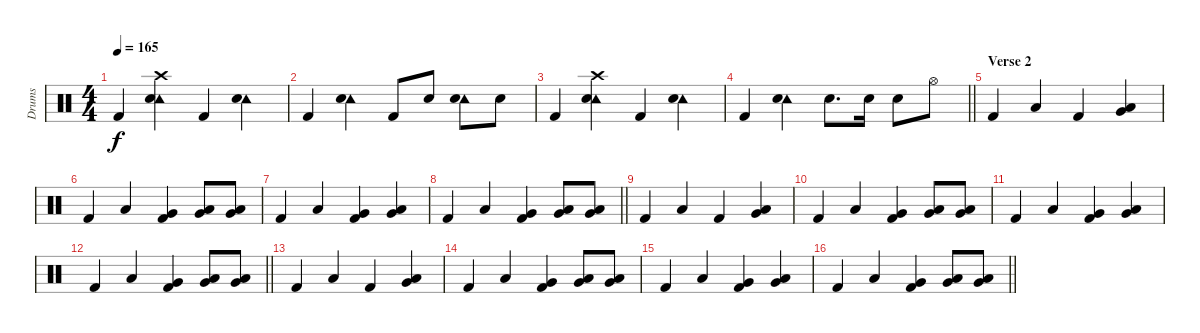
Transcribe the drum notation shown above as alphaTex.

\track ("Drums" "Drums") {instrument percussion}
\staff {score}
\articulation defaults
\ts (4 4)
\tempo 165
\clef neutral
\ks c "Kick (hit) 2".4{dy f}
("Crash high (hit)" "Tambourine (hit)" "Snare (hit) 2").4 "Kick (hit) 2".4 ("Tambourine (hit)" "Snare (hit) 2").4 |
"Kick (hit) 2".4 ("Tambourine (hit)" "Snare (hit) 2").4 "Kick (hit) 2".8 "Snare (hit) 2".8 ("Tambourine (hit)" "Snare (hit) 2").8 "Snare (hit) 2".8 |
"Kick (hit) 2".4 ("Crash high (hit)" "Tambourine (hit)" "Snare (hit) 2").4 "Kick (hit) 2".4 ("Tambourine (hit)" "Snare (hit) 2").4 |
\barLineRight lightlight "Kick (hit) 2".4
("Tambourine (hit)" "Snare (hit) 2").4 "Snare (hit) 2".8{d} "Snare (hit) 2".16 "Snare (hit) 2".8 "Hi-Hat (open)".8 |
\section ("" "Verse 2")
"Kick (hit) 2".4 "Low Tom (hit)".4 "Kick (hit) 2".4 ("Low Tom (hit)" "Very Low Tom (hit)").4 |
"Kick (hit) 2".4 "Low Tom (hit)".4 ("Very Low Tom (hit)" "Kick (hit) 2").4 ("Low Tom (hit)" "Very Low Tom (hit)").8 ("Low Tom (hit)" "Very Low Tom (hit)").8 |
"Kick (hit) 2".4 "Low Tom (hit)".4 ("Very Low Tom (hit)" "Kick (hit) 2").4 ("Low Tom (hit)" "Very Low Tom (hit)").4 |
\barLineRight lightlight "Kick (hit) 2".4 "Low Tom (hit)".4
("Very Low Tom (hit)" "Kick (hit) 2").4 ("Low Tom (hit)" "Very Low Tom (hit)").8 ("Low Tom (hit)" "Very Low Tom (hit)").8 |
"Kick (hit) 2".4 "Low Tom (hit)".4 "Kick (hit) 2".4 ("Low Tom (hit)" "Very Low Tom (hit)").4 |
"Kick (hit) 2".4 "Low Tom (hit)".4 ("Very Low Tom (hit)" "Kick (hit) 2").4 ("Low Tom (hit)" "Very Low Tom (hit)").8 ("Low Tom (hit)" "Very Low Tom (hit)").8 |
"Kick (hit) 2".4 "Low Tom (hit)".4 ("Very Low Tom (hit)" "Kick (hit) 2").4 ("Low Tom (hit)" "Very Low Tom (hit)").4 |
\barLineRight lightlight "Kick (hit) 2".4 "Low Tom (hit)".4
("Very Low Tom (hit)" "Kick (hit) 2").4 ("Low Tom (hit)" "Very Low Tom (hit)").8 ("Low Tom (hit)" "Very Low Tom (hit)").8 |
"Kick (hit) 2".4 "Low Tom (hit)".4 "Kick (hit) 2".4 ("Low Tom (hit)" "Very Low Tom (hit)").4 |
"Kick (hit) 2".4 "Low Tom (hit)".4 ("Very Low Tom (hit)" "Kick (hit) 2").4 ("Low Tom (hit)" "Very Low Tom (hit)").8 ("Low Tom (hit)" "Very Low Tom (hit)").8 |
"Kick (hit) 2".4 "Low Tom (hit)".4 ("Very Low Tom (hit)" "Kick (hit) 2").4 ("Low Tom (hit)" "Very Low Tom (hit)").4 |
\barLineRight lightlight "Kick (hit) 2".4 "Low Tom (hit)".4
("Very Low Tom (hit)" "Kick (hit) 2").4 ("Low Tom (hit)" "Very Low Tom (hit)").8 ("Low Tom (hit)" "Very Low Tom (hit)").8
